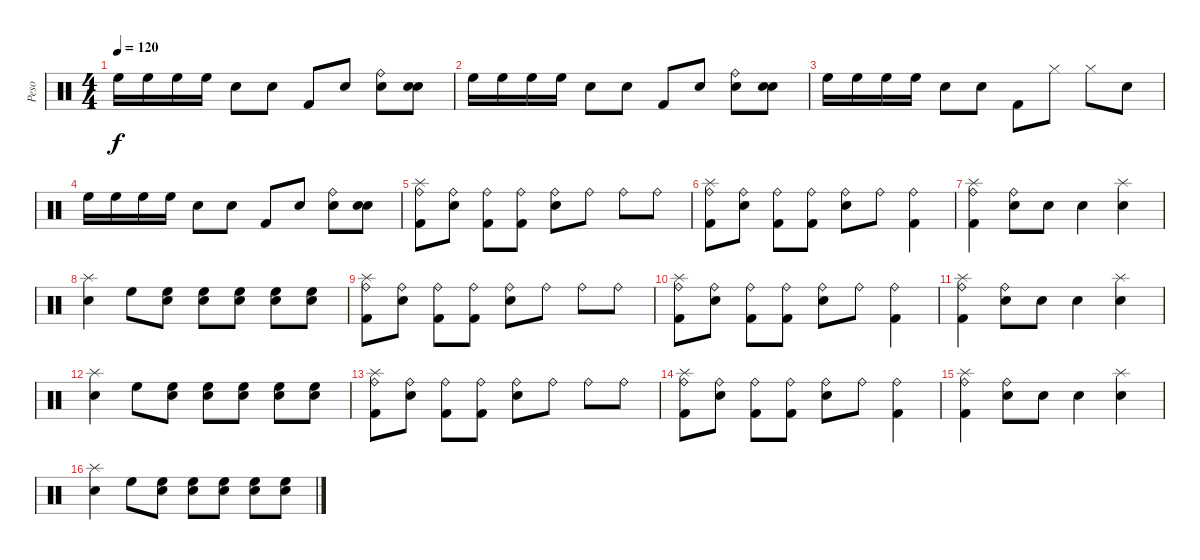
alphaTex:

\track ("Peso" "Peso") {instrument percussion}
\staff {score}
\articulation defaults
\ts (4 4)
\tempo 120
\clef neutral
\ks c "High Floor Tom (hit)".16{dy f} "High Floor Tom (hit)".16 "High Floor Tom (hit)".16 "High Floor Tom (hit)".16 "Snare (hit) 2".8 "Snare (hit) 2".8 "Kick (hit) 2".8 "Snare (hit)"{x}.8
("Ride (bell)" "Snare (hit)"{x}).8 ("Snare (hit) 2" "Snare (hit)"{x}).8 |
"High Floor Tom (hit)".16 "High Floor Tom (hit)".16 "High Floor Tom (hit)".16 "High Floor Tom (hit)".16 "Snare (hit) 2".8 "Snare (hit) 2".8 "Kick (hit) 2".8 "Snare (hit)"{x}.8 ("Ride (bell)" "Snare (hit)"{x}).8 ("Snare (hit) 2" "Snare (hit)"{x}).8 |
"High Floor Tom (hit)".16 "High Floor Tom (hit)".16 "High Floor Tom (hit)".16 "High Floor Tom (hit)".16 "Snare (hit) 2".8 "Snare (hit) 2".8 "Kick (hit) 2".8 "Hi-Hat (closed)".8 "Hi-Hat (closed)".8 "Snare (hit) 2".8 |
"High Floor Tom (hit)".16 "High Floor Tom (hit)".16 "High Floor Tom (hit)".16 "High Floor Tom (hit)".16 "Snare (hit) 2".8 "Snare (hit) 2".8 "Kick (hit) 2".8 "Snare (hit)"{x}.8 ("Ride (bell)" "Snare (hit)"{x}).8 ("Snare (hit) 2" "Snare (hit)"{x}).8 |
("Splash (hit)" "Ride (bell)" "Kick (hit) 2").8 ("Ride (bell)" "Snare (hit) 2").8 ("Ride (bell)" "Kick (hit) 2").8 ("Ride (bell)" "Kick (hit) 2").8 ("Ride (bell)" "Snare (hit) 2").8 "Ride (bell)".8 "Ride (bell)".8 "Ride (bell)".8 |
("Splash (hit)" "Ride (bell)" "Kick (hit) 2").8 ("Ride (bell)" "Snare (hit) 2").8 ("Ride (bell)" "Kick (hit) 2").8 ("Ride (bell)" "Kick (hit) 2").8 ("Ride (bell)" "Snare (hit) 2").8 "Ride (bell)".8 ("Ride (bell)" "Kick (hit) 2").4 |
("Splash (hit)" "Ride (bell)" "Kick (hit) 2").4 ("Ride (bell)" "Snare (hit) 2").8 "Snare (hit) 2".8 "Snare (hit) 2".4 ("Splash (hit)" "Snare (hit) 2").4 |
("Splash (hit)" "Snare (hit) 2").4 "High Floor Tom (hit)".8 ("High Floor Tom (hit)" "Snare (hit) 2").8 ("High Floor Tom (hit)" "Snare (hit) 2").8 ("High Floor Tom (hit)" "Snare (hit) 2").8 ("High Floor Tom (hit)" "Snare (hit) 2").8 ("High Floor Tom (hit)" "Snare (hit) 2").8 |
("Splash (hit)" "Ride (bell)" "Kick (hit) 2").8 ("Ride (bell)" "Snare (hit) 2").8 ("Ride (bell)" "Kick (hit) 2").8 ("Ride (bell)" "Kick (hit) 2").8 ("Ride (bell)" "Snare (hit) 2").8 "Ride (bell)".8 "Ride (bell)".8 "Ride (bell)".8 |
("Splash (hit)" "Ride (bell)" "Kick (hit) 2").8 ("Ride (bell)" "Snare (hit) 2").8 ("Ride (bell)" "Kick (hit) 2").8 ("Ride (bell)" "Kick (hit) 2").8 ("Ride (bell)" "Snare (hit) 2").8 "Ride (bell)".8 ("Ride (bell)" "Kick (hit) 2").4 |
("Splash (hit)" "Ride (bell)" "Kick (hit) 2").4 ("Ride (bell)" "Snare (hit) 2").8 "Snare (hit) 2".8 "Snare (hit) 2".4 ("Splash (hit)" "Snare (hit) 2").4 |
("Splash (hit)" "Snare (hit) 2").4 "High Floor Tom (hit)".8 ("High Floor Tom (hit)" "Snare (hit) 2").8 ("High Floor Tom (hit)" "Snare (hit) 2").8 ("High Floor Tom (hit)" "Snare (hit) 2").8 ("High Floor Tom (hit)" "Snare (hit) 2").8 ("High Floor Tom (hit)" "Snare (hit) 2").8 |
("Splash (hit)" "Ride (bell)" "Kick (hit) 2").8 ("Ride (bell)" "Snare (hit) 2").8 ("Ride (bell)" "Kick (hit) 2").8 ("Ride (bell)" "Kick (hit) 2").8 ("Ride (bell)" "Snare (hit) 2").8 "Ride (bell)".8 "Ride (bell)".8 "Ride (bell)".8 |
("Splash (hit)" "Ride (bell)" "Kick (hit) 2").8 ("Ride (bell)" "Snare (hit) 2").8 ("Ride (bell)" "Kick (hit) 2").8 ("Ride (bell)" "Kick (hit) 2").8 ("Ride (bell)" "Snare (hit) 2").8 "Ride (bell)".8 ("Ride (bell)" "Kick (hit) 2").4 |
("Splash (hit)" "Ride (bell)" "Kick (hit) 2").4 ("Ride (bell)" "Snare (hit) 2").8 "Snare (hit) 2".8 "Snare (hit) 2".4 ("Splash (hit)" "Snare (hit) 2").4 |
("Splash (hit)" "Snare (hit) 2").4 "High Floor Tom (hit)".8 ("High Floor Tom (hit)" "Snare (hit) 2").8 ("High Floor Tom (hit)" "Snare (hit) 2").8 ("High Floor Tom (hit)" "Snare (hit) 2").8 ("High Floor Tom (hit)" "Snare (hit) 2").8 ("High Floor Tom (hit)" "Snare (hit) 2").8
